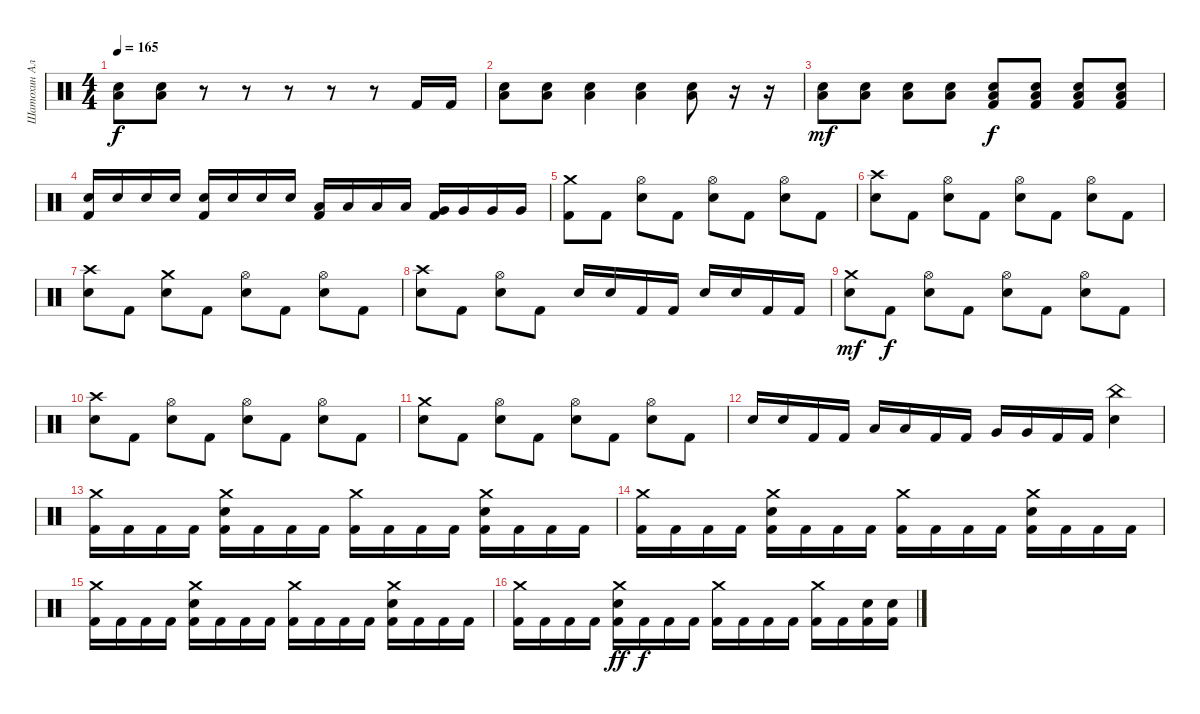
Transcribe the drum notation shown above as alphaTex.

\track ("Шатохин Алексей" "Шатохин Ал") {instrument percussion}
\staff {score}
\articulation defaults
\ts (4 4)
\tempo 165
\clef neutral
\ks c
("Electric Snare (hit)" "Low Floor Tom (hit)").8{dy f} ("Electric Snare (hit)" "Low Floor Tom (hit)").8 r.8 r.8 r.8 r.8 r.8 "Kick (hit) 2".16 "Kick (hit) 2".16 |
("Electric Snare (hit)" "Low Floor Tom (hit)").8 ("Electric Snare (hit)" "Low Floor Tom (hit)").8 ("Electric Snare (hit)" "Low Floor Tom (hit)").4 ("Electric Snare (hit)" "Low Floor Tom (hit)").4 ("Electric Snare (hit)" "Low Floor Tom (hit)").8 r.16 r.16 |
("Low Floor Tom (hit)" "Electric Snare (hit)").8{dy mf} ("Low Floor Tom (hit)" "Electric Snare (hit)").8 ("Low Floor Tom (hit)" "Electric Snare (hit)").8 ("Low Floor Tom (hit)" "Electric Snare (hit)").8 ("Electric Snare (hit)" "Low Floor Tom (hit)" "Kick (hit) 2").8{dy f} ("Electric Snare (hit)" "Low Floor Tom (hit)" "Kick (hit) 2").8 ("Electric Snare (hit)" "Low Floor Tom (hit)" "Kick (hit) 2").8 ("Electric Snare (hit)" "Low Floor Tom (hit)" "Kick (hit) 2").8 |
("Electric Snare (hit)" "Kick (hit) 2").16 "Electric Snare (hit)".16 "Electric Snare (hit)".16 "Electric Snare (hit)".16 ("Electric Snare (hit)" "Kick (hit) 2").16 "Electric Snare (hit)".16 "Electric Snare (hit)".16 "Electric Snare (hit)".16 ("Low Tom (hit)" "Kick (hit) 2").16 "Low Tom (hit)".16 "Low Tom (hit)".16 "Low Tom (hit)".16 ("Very Low Tom (hit)" "Kick (hit) 2").16 "Very Low Tom (hit)".16 "Very Low Tom (hit)".16 "Very Low Tom (hit)".16 |
("Crash medium (hit)" "Kick (hit) 2").8 "Kick (hit) 2".8 ("Hi-Hat (open)" "Electric Snare (hit)").8 "Kick (hit) 2".8 ("Hi-Hat (open)" "Electric Snare (hit)").8 "Kick (hit) 2".8 ("Hi-Hat (open)" "Electric Snare (hit)").8 "Kick (hit) 2".8 |
("Crash high (hit)" "Electric Snare (hit)").8 "Kick (hit) 2".8 ("Hi-Hat (open)" "Electric Snare (hit)").8 "Kick (hit) 2".8 ("Hi-Hat (open)" "Electric Snare (hit)").8 "Kick (hit) 2".8 ("Hi-Hat (open)" "Electric Snare (hit)").8 "Kick (hit) 2".8 |
("Crash high (hit)" "Electric Snare (hit)").8 "Kick (hit) 2".8 ("Crash medium (hit)" "Electric Snare (hit)").8 "Kick (hit) 2".8 ("Hi-Hat (open)" "Electric Snare (hit)").8 "Kick (hit) 2".8 ("Hi-Hat (open)" "Electric Snare (hit)").8 "Kick (hit) 2".8 |
("Crash high (hit)" "Electric Snare (hit)").8 "Kick (hit) 2".8 ("Hi-Hat (open)" "Electric Snare (hit)").8 "Kick (hit) 2".8 "Electric Snare (hit)".16 "Electric Snare (hit)".16 "Kick (hit) 2".16 "Kick (hit) 2".16 "Electric Snare (hit)".16 "Electric Snare (hit)".16 "Kick (hit) 2".16 "Kick (hit) 2".16 |
("Crash medium (hit)" "Electric Snare (hit)").8{dy mf} "Kick (hit) 2".8{dy f} ("Hi-Hat (open)" "Electric Snare (hit)").8 "Kick (hit) 2".8 ("Hi-Hat (open)" "Electric Snare (hit)").8 "Kick (hit) 2".8 ("Hi-Hat (open)" "Electric Snare (hit)").8 "Kick (hit) 2".8 |
("Crash high (hit)" "Electric Snare (hit)").8 "Kick (hit) 2".8 ("Hi-Hat (open)" "Electric Snare (hit)").8 "Kick (hit) 2".8 ("Hi-Hat (open)" "Electric Snare (hit)").8 "Kick (hit) 2".8 ("Hi-Hat (open)" "Electric Snare (hit)").8 "Kick (hit) 2".8 |
("Crash medium (hit)" "Electric Snare (hit)").8 "Kick (hit) 2".8 ("Hi-Hat (open)" "Electric Snare (hit)").8 "Kick (hit) 2".8 ("Hi-Hat (open)" "Electric Snare (hit)").8 "Kick (hit) 2".8 ("Hi-Hat (open)" "Electric Snare (hit)").8 "Kick (hit) 2".8 |
"Electric Snare (hit)".16 "Electric Snare (hit)".16 "Kick (hit) 2".16 "Kick (hit) 2".16 "Low Tom (hit)".16 "Low Tom (hit)".16 "Kick (hit) 2".16 "Kick (hit) 2".16 "Very Low Tom (hit)".16 "Very Low Tom (hit)".16 "Kick (hit) 2".16 "Kick (hit) 2".16 ("China (hit)" "Electric Snare (hit)").4 |
("Crash medium (hit)" "Kick (hit) 2").16 "Kick (hit) 2".16 "Kick (hit) 2".16 "Kick (hit) 2".16 ("Electric Snare (hit)" "Crash medium (hit)" "Kick (hit) 2").16 "Kick (hit) 2".16 "Kick (hit) 2".16 "Kick (hit) 2".16 ("Crash medium (hit)" "Kick (hit) 2").16 "Kick (hit) 2".16 "Kick (hit) 2".16 "Kick (hit) 2".16 ("Crash medium (hit)" "Electric Snare (hit)" "Kick (hit) 2").16 "Kick (hit) 2".16 "Kick (hit) 2".16 "Kick (hit) 2".16 |
("Crash medium (hit)" "Kick (hit) 2").16 "Kick (hit) 2".16 "Kick (hit) 2".16 "Kick (hit) 2".16 ("Electric Snare (hit)" "Crash medium (hit)" "Kick (hit) 2").16 "Kick (hit) 2".16 "Kick (hit) 2".16 "Kick (hit) 2".16 ("Crash medium (hit)" "Kick (hit) 2").16 "Kick (hit) 2".16 "Kick (hit) 2".16 "Kick (hit) 2".16 ("Crash medium (hit)" "Electric Snare (hit)" "Kick (hit) 2").16 "Kick (hit) 2".16 "Kick (hit) 2".16 "Kick (hit) 2".16 |
("Crash medium (hit)" "Kick (hit) 2").16 "Kick (hit) 2".16 "Kick (hit) 2".16 "Kick (hit) 2".16 ("Electric Snare (hit)" "Crash medium (hit)" "Kick (hit) 2").16 "Kick (hit) 2".16 "Kick (hit) 2".16 "Kick (hit) 2".16 ("Crash medium (hit)" "Kick (hit) 2").16 "Kick (hit) 2".16 "Kick (hit) 2".16 "Kick (hit) 2".16 ("Crash medium (hit)" "Electric Snare (hit)" "Kick (hit) 2").16 "Kick (hit) 2".16 "Kick (hit) 2".16 "Kick (hit) 2".16 |
("Crash medium (hit)" "Kick (hit) 2").16 "Kick (hit) 2".16 "Kick (hit) 2".16 "Kick (hit) 2".16 ("Crash medium (hit)" "Electric Snare (hit)" "Kick (hit) 2").16{dy ff} "Kick (hit) 2".16{dy f} "Kick (hit) 2".16 "Kick (hit) 2".16 ("Crash medium (hit)" "Kick (hit) 2").16 "Kick (hit) 2".16 "Kick (hit) 2".16 "Kick (hit) 2".16 ("Crash medium (hit)" "Kick (hit) 2").16 "Kick (hit) 2".16 ("Electric Snare (hit)" "Kick (hit) 2").16 ("Electric Snare (hit)" "Kick (hit) 2").16
